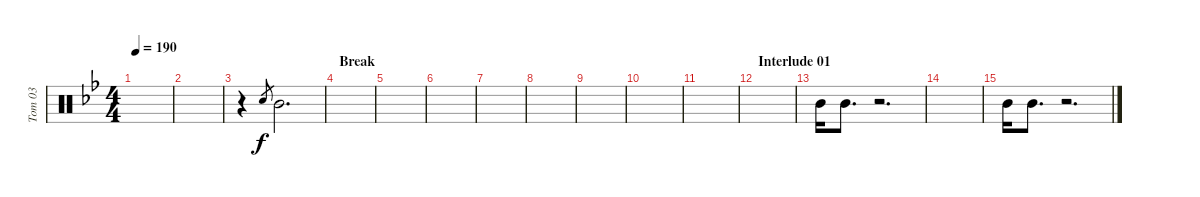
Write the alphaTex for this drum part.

\track ("Tom 03" "Tom 03") {instrument percussion}
\staff {score}
\articulation defaults
\ts (4 4)
\tempo 190
\clef neutral
\ks bb
|
|
r.4 "Snare (hit)".8{gr} "Mid Tom (hit)".2{d} |
\section ("" "Break")
|
|
|
|
|
|
|
|
\section ("" "Interlude 01")
|
"Mid Tom (hit)".16 "Mid Tom (hit)".8{d} r.2{d} |
|
"Mid Tom (hit)".16 "Mid Tom (hit)".8{d} r.2{d}
